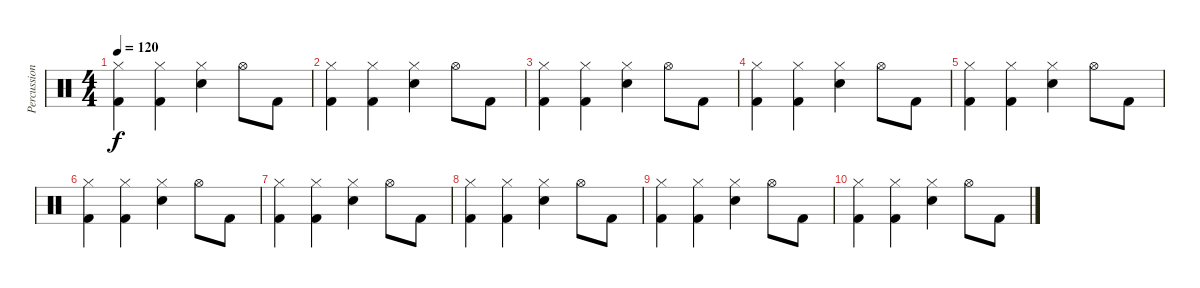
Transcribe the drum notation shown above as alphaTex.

\track ("Percussions" "Percussion") {instrument percussion}
\staff {score}
\articulation defaults
\ts (4 4)
\tempo 120
\clef neutral
\ks c
("Hi-Hat (closed)" "Kick (hit) 2").4{dy f} ("Hi-Hat (closed)" "Kick (hit) 2").4 ("Hi-Hat (closed)" "Snare (hit) 2").4 "Hi-Hat (open)".8 "Kick (hit) 2".8 |
("Hi-Hat (closed)" "Kick (hit) 2").4 ("Hi-Hat (closed)" "Kick (hit) 2").4 ("Hi-Hat (closed)" "Snare (hit) 2").4 "Hi-Hat (open)".8 "Kick (hit) 2".8 |
("Hi-Hat (closed)" "Kick (hit) 2").4 ("Hi-Hat (closed)" "Kick (hit) 2").4 ("Hi-Hat (closed)" "Snare (hit) 2").4 "Hi-Hat (open)".8 "Kick (hit) 2".8 |
("Hi-Hat (closed)" "Kick (hit) 2").4 ("Hi-Hat (closed)" "Kick (hit) 2").4 ("Hi-Hat (closed)" "Snare (hit) 2").4 "Hi-Hat (open)".8 "Kick (hit) 2".8 |
("Hi-Hat (closed)" "Kick (hit) 2").4 ("Hi-Hat (closed)" "Kick (hit) 2").4 ("Hi-Hat (closed)" "Snare (hit) 2").4 "Hi-Hat (open)".8 "Kick (hit) 2".8 |
("Hi-Hat (closed)" "Kick (hit) 2").4 ("Hi-Hat (closed)" "Kick (hit) 2").4 ("Hi-Hat (closed)" "Snare (hit) 2").4 "Hi-Hat (open)".8 "Kick (hit) 2".8 |
("Hi-Hat (closed)" "Kick (hit) 2").4 ("Hi-Hat (closed)" "Kick (hit) 2").4 ("Hi-Hat (closed)" "Snare (hit) 2").4 "Hi-Hat (open)".8 "Kick (hit) 2".8 |
("Hi-Hat (closed)" "Kick (hit) 2").4 ("Hi-Hat (closed)" "Kick (hit) 2").4 ("Hi-Hat (closed)" "Snare (hit) 2").4 "Hi-Hat (open)".8 "Kick (hit) 2".8 |
("Hi-Hat (closed)" "Kick (hit) 2").4 ("Hi-Hat (closed)" "Kick (hit) 2").4 ("Hi-Hat (closed)" "Snare (hit) 2").4 "Hi-Hat (open)".8 "Kick (hit) 2".8 |
("Hi-Hat (closed)" "Kick (hit) 2").4 ("Hi-Hat (closed)" "Kick (hit) 2").4 ("Hi-Hat (closed)" "Snare (hit) 2").4 "Hi-Hat (open)".8 "Kick (hit) 2".8
